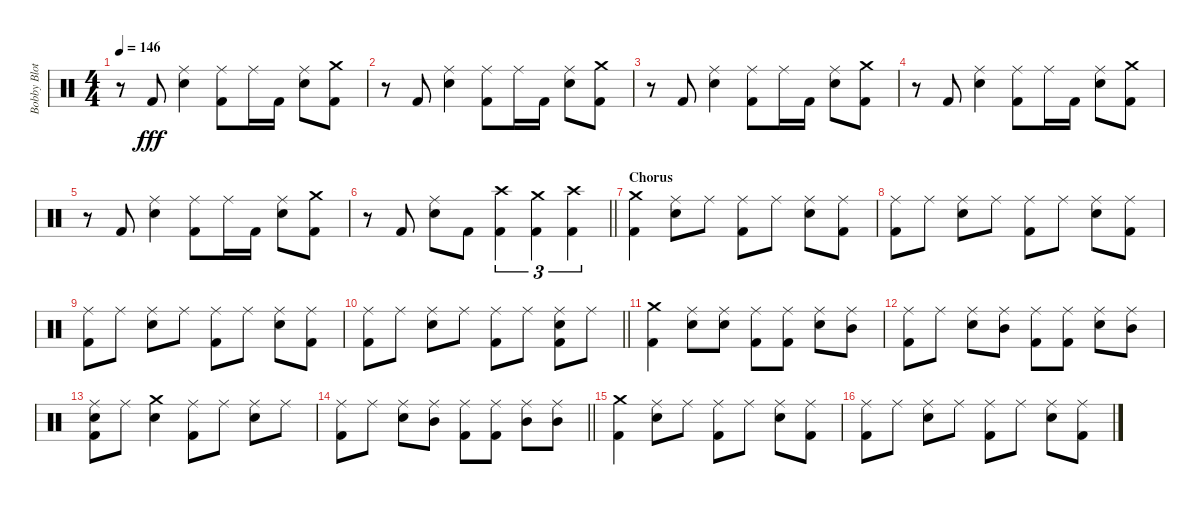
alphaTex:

\track ("Bobby Blotzer - Drums" "Bobby Blot") {instrument percussion}
\staff {score}
\articulation defaults
\ts (4 4)
\tempo 146
\clef neutral
\ks c
r.8{dy fff} "Kick (hit) 2".8 ("Ride (middle)" "Snare (hit) 2").4 ("Ride (middle)" "Kick (hit) 2").8 "Ride (middle)".16 "Kick (hit) 2".16 ("Ride (middle)" "Snare (hit) 2").8 ("Crash medium (hit)" "Kick (hit) 2").8 |
r.8 "Kick (hit) 2".8 ("Ride (middle)" "Snare (hit) 2").4 ("Ride (middle)" "Kick (hit) 2").8 "Ride (middle)".16 "Kick (hit) 2".16 ("Ride (middle)" "Snare (hit) 2").8 ("Crash medium (hit)" "Kick (hit) 2").8 |
r.8 "Kick (hit) 2".8 ("Ride (middle)" "Snare (hit) 2").4 ("Ride (middle)" "Kick (hit) 2").8 "Ride (middle)".16 "Kick (hit) 2".16 ("Ride (middle)" "Snare (hit) 2").8 ("Crash medium (hit)" "Kick (hit) 2").8 |
r.8 "Kick (hit) 2".8 ("Ride (middle)" "Snare (hit) 2").4 ("Ride (middle)" "Kick (hit) 2").8 "Ride (middle)".16 "Kick (hit) 2".16 ("Ride (middle)" "Snare (hit) 2").8 ("Crash medium (hit)" "Kick (hit) 2").8 |
r.8 "Kick (hit) 2".8 ("Ride (middle)" "Snare (hit) 2").4 ("Ride (middle)" "Kick (hit) 2").8 "Ride (middle)".16 "Kick (hit) 2".16 ("Ride (middle)" "Snare (hit) 2").8 ("Crash medium (hit)" "Kick (hit) 2").8 |
\barLineRight lightlight
r.8 "Kick (hit) 2".8 ("Ride (middle)" "Snare (hit) 2").8 "Kick (hit) 2".8 ("Crash high (hit)" "Kick (hit) 2").4{tu (3 2)} ("Crash medium (hit)" "Kick (hit) 2").4{tu (3 2)} ("Crash high (hit)" "Kick (hit) 2").4{tu (3 2)} |
\section ("" "Chorus")
("Crash medium (hit)" "Kick (hit) 2").4 ("Ride (middle)" "Snare (hit) 2").8 "Ride (middle)".8 ("Ride (middle)" "Kick (hit) 2").8 "Ride (middle)".8 ("Ride (middle)" "Snare (hit) 2").8 ("Ride (middle)" "Kick (hit) 2").8 |
("Ride (middle)" "Kick (hit) 2").8 "Ride (middle)".8 ("Ride (middle)" "Snare (hit) 2").8 "Ride (middle)".8 ("Ride (middle)" "Kick (hit) 2").8 "Ride (middle)".8 ("Ride (middle)" "Snare (hit) 2").8 ("Ride (middle)" "Kick (hit) 2").8 |
("Ride (middle)" "Kick (hit) 2").8 "Ride (middle)".8 ("Ride (middle)" "Snare (hit) 2").8 "Ride (middle)".8 ("Ride (middle)" "Kick (hit) 2").8 "Ride (middle)".8 ("Ride (middle)" "Snare (hit) 2").8 ("Ride (middle)" "Kick (hit) 2").8 |
\barLineRight lightlight
("Ride (middle)" "Kick (hit) 2").8 "Ride (middle)".8 ("Ride (middle)" "Snare (hit) 2").8 "Ride (middle)".8 ("Ride (middle)" "Kick (hit) 2").8 "Ride (middle)".8 ("Ride (middle)" "Snare (hit) 2" "Kick (hit) 2").8 "Ride (middle)".8 |
("Crash medium (hit)" "Kick (hit) 2").4 ("Ride (middle)" "Snare (hit) 2").8 ("Ride (middle)" "Snare (hit) 2").8 ("Ride (middle)" "Kick (hit) 2").8 ("Ride (middle)" "Kick (hit) 2").8 ("Ride (middle)" "Snare (hit) 2").8 ("Ride (middle)" "Mid Tom (hit)").8 |
("Ride (middle)" "Kick (hit) 2").8 "Ride (middle)".8 ("Ride (middle)" "Snare (hit) 2").8 ("Ride (middle)" "Mid Tom (hit)").8 ("Ride (middle)" "Kick (hit) 2").8 ("Ride (middle)" "Kick (hit) 2").8 ("Ride (middle)" "Snare (hit) 2").8 ("Ride (middle)" "Mid Tom (hit)").8 |
("Ride (middle)" "Snare (hit) 2" "Kick (hit) 2").8 "Ride (middle)".8 ("Crash medium (hit)" "Snare (hit) 2").4 ("Ride (middle)" "Kick (hit) 2").8 "Ride (middle)".8 ("Ride (middle)" "Snare (hit) 2").8 "Ride (middle)".8 |
\barLineRight lightlight
("Ride (middle)" "Kick (hit) 2").8 "Ride (middle)".8 ("Ride (middle)" "Snare (hit) 2").8 ("Ride (middle)" "Mid Tom (hit)").8 ("Ride (middle)" "Kick (hit) 2").8 ("Ride (middle)" "Kick (hit) 2").8 ("Ride (middle)" "Mid Tom (hit)").8 ("Ride (middle)" "Mid Tom (hit)").8 |
("Crash medium (hit)" "Kick (hit) 2").4 ("Ride (middle)" "Snare (hit) 2").8 "Ride (middle)".8 ("Ride (middle)" "Kick (hit) 2").8 "Ride (middle)".8 ("Ride (middle)" "Snare (hit) 2").8 ("Ride (middle)" "Kick (hit) 2").8 |
("Ride (middle)" "Kick (hit) 2").8 "Ride (middle)".8 ("Ride (middle)" "Snare (hit) 2").8 "Ride (middle)".8 ("Ride (middle)" "Kick (hit) 2").8 "Ride (middle)".8 ("Ride (middle)" "Snare (hit) 2").8 ("Ride (middle)" "Kick (hit) 2").8
